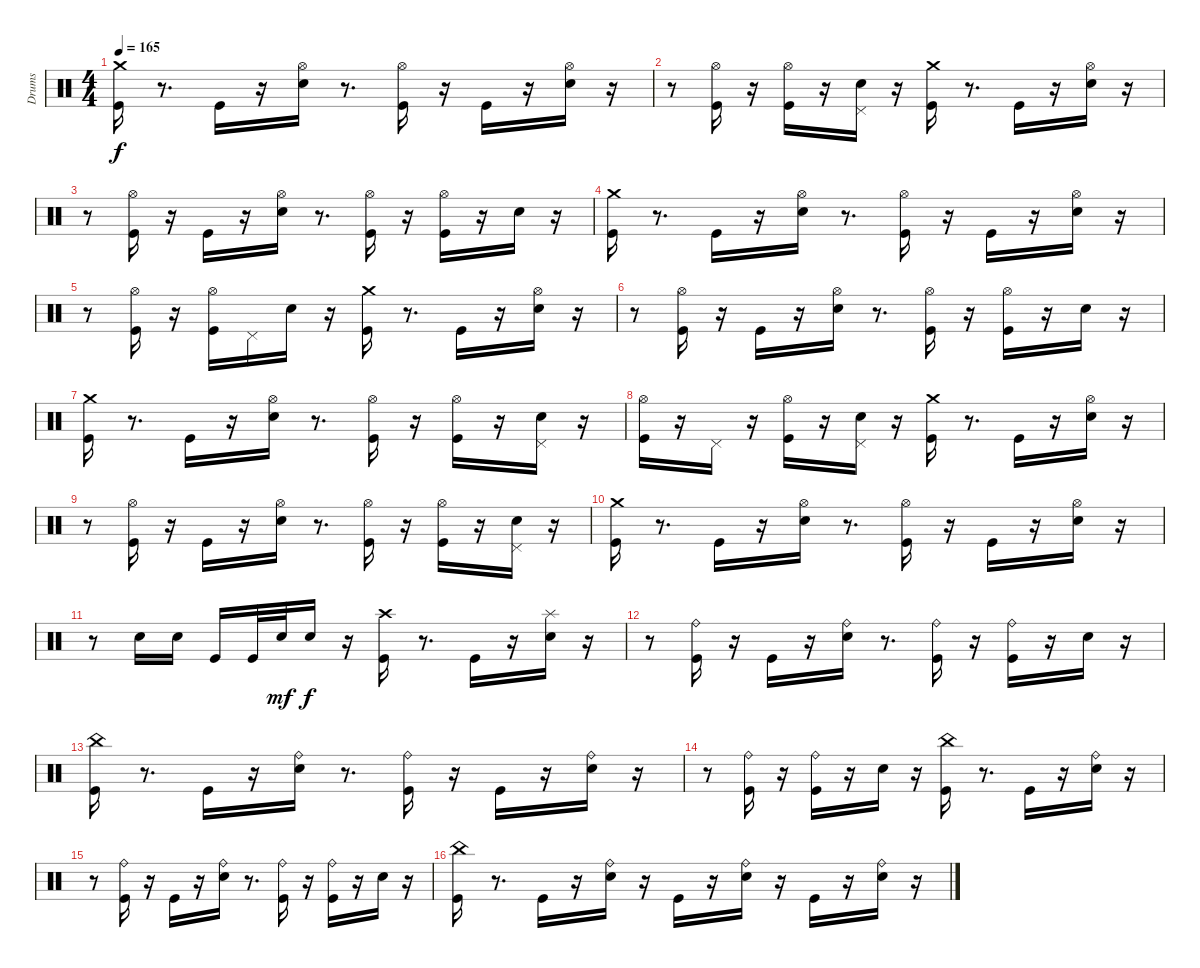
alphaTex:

\track ("Drums" "Drums") {instrument percussion}
\staff {score}
\articulation defaults
\ts (4 4)
\tempo 165
\clef neutral
\ks c
("Crash medium (hit)" "Kick (hit)").16{dy f} r.8{d} "Kick (hit)".16 r.16 ("Hi-Hat (open)" "Electric Snare (hit)").16 r.8{d} ("Kick (hit)" "Hi-Hat (open)").16 r.16 "Kick (hit)".16 r.16 ("Electric Snare (hit)" "Hi-Hat (open)").16 r.16 |
r.8 ("Kick (hit)" "Hi-Hat (open)").16 r.16 ("Hi-Hat (open)" "Kick (hit)").16 r.16 ("Pedal Hi-Hat (hit)" "Electric Snare (hit)").16 r.16 ("Crash medium (hit)" "Kick (hit)").16 r.8{d} "Kick (hit)".16 r.16 ("Hi-Hat (open)" "Electric Snare (hit)").16 r.16 |
r.8 ("Kick (hit)" "Hi-Hat (open)").16 r.16 "Kick (hit)".16 r.16 ("Electric Snare (hit)" "Hi-Hat (open)").16 r.8{d} ("Kick (hit)" "Hi-Hat (open)").16 r.16 ("Hi-Hat (open)" "Kick (hit)").16 r.16 "Electric Snare (hit)".16 r.16 |
("Crash medium (hit)" "Kick (hit)").16 r.8{d} "Kick (hit)".16 r.16 ("Hi-Hat (open)" "Electric Snare (hit)").16 r.8{d} ("Kick (hit)" "Hi-Hat (open)").16 r.16 "Kick (hit)".16 r.16 ("Electric Snare (hit)" "Hi-Hat (open)").16 r.16 |
r.8 ("Kick (hit)" "Hi-Hat (open)").16 r.16 ("Hi-Hat (open)" "Kick (hit)").16 "Pedal Hi-Hat (hit)".16 "Electric Snare (hit)".16 r.16 ("Crash medium (hit)" "Kick (hit)").16 r.8{d} "Kick (hit)".16 r.16 ("Hi-Hat (open)" "Electric Snare (hit)").16 r.16 |
r.8 ("Kick (hit)" "Hi-Hat (open)").16 r.16 "Kick (hit)".16 r.16 ("Electric Snare (hit)" "Hi-Hat (open)").16 r.8{d} ("Kick (hit)" "Hi-Hat (open)").16 r.16 ("Hi-Hat (open)" "Kick (hit)").16 r.16 "Electric Snare (hit)".16 r.16 |
("Crash medium (hit)" "Kick (hit)").16 r.8{d} "Kick (hit)".16 r.16 ("Hi-Hat (open)" "Electric Snare (hit)").16 r.8{d} ("Kick (hit)" "Hi-Hat (open)").16 r.16 ("Hi-Hat (open)" "Kick (hit)").16 r.16 ("Electric Snare (hit)" "Pedal Hi-Hat (hit)").16 r.16 |
("Hi-Hat (open)" "Kick (hit)").16 r.16 "Pedal Hi-Hat (hit)".16 r.16 ("Hi-Hat (open)" "Kick (hit)").16 r.16 ("Pedal Hi-Hat (hit)" "Electric Snare (hit)").16 r.16 ("Crash medium (hit)" "Kick (hit)").16 r.8{d} "Kick (hit)".16 r.16 ("Hi-Hat (open)" "Electric Snare (hit)").16 r.16 |
r.8 ("Kick (hit)" "Hi-Hat (open)").16 r.16 "Kick (hit)".16 r.16 ("Electric Snare (hit)" "Hi-Hat (open)").16 r.8{d} ("Kick (hit)" "Hi-Hat (open)").16 r.16 ("Hi-Hat (open)" "Kick (hit)").16 r.16 ("Pedal Hi-Hat (hit)" "Electric Snare (hit)").16 r.16 |
("Crash medium (hit)" "Kick (hit)").16 r.8{d} "Kick (hit)".16 r.16 ("Hi-Hat (open)" "Electric Snare (hit)").16 r.8{d} ("Kick (hit)" "Hi-Hat (open)").16 r.16 "Kick (hit)".16 r.16 ("Electric Snare (hit)" "Hi-Hat (open)").16 r.16 |
r.8 "Electric Snare (hit)".16 "Electric Snare (hit)".16 "Kick (hit)".16 "Kick (hit)".32 "Electric Snare (hit)".32{dy mf} "Electric Snare (hit)".16{dy f} r.16 ("Crash high (hit)" "Kick (hit)").16 r.8{d} "Kick (hit)".16 r.16 ("Electric Snare (hit)" "Splash (hit)").16 r.16 |
r.8 ("Ride (bell)" "Kick (hit)").16 r.16 "Kick (hit)".16 r.16 ("Ride (bell)" "Electric Snare (hit)").16 r.8{d} ("Ride (bell)" "Kick (hit)").16 r.16 ("Ride (bell)" "Kick (hit)").16 r.16 "Electric Snare (hit)".16 r.16 |
("China (hit)" "Kick (hit)").16 r.8{d} "Kick (hit)".16 r.16 ("Electric Snare (hit)" "Ride (bell)").16 r.8{d} ("Ride (bell)" "Kick (hit)").16 r.16 "Kick (hit)".16 r.16 ("Ride (bell)" "Electric Snare (hit)").16 r.16 |
r.8 ("Ride (bell)" "Kick (hit)").16 r.16 ("Ride (bell)" "Kick (hit)").16 r.16 "Electric Snare (hit)".16 r.16 ("China (hit)" "Kick (hit)").16 r.8{d} "Kick (hit)".16 r.16 ("Electric Snare (hit)" "Ride (bell)").16 r.16 |
r.8 ("Ride (bell)" "Kick (hit)").16 r.16 "Kick (hit)".16 r.16 ("Ride (bell)" "Electric Snare (hit)").16 r.8{d} ("Ride (bell)" "Kick (hit)").16 r.16 ("Ride (bell)" "Kick (hit)").16 r.16 "Electric Snare (hit)".16 r.16 |
("China (hit)" "Kick (hit)").16 r.8{d} "Kick (hit)".16 r.16 ("Electric Snare (hit)" "Ride (bell)").16 r.16 "Kick (hit)".16 r.16 ("Ride (bell)" "Electric Snare (hit)").16 r.16 "Kick (hit)".16 r.16 ("Ride (bell)" "Electric Snare (hit)").16 r.16
